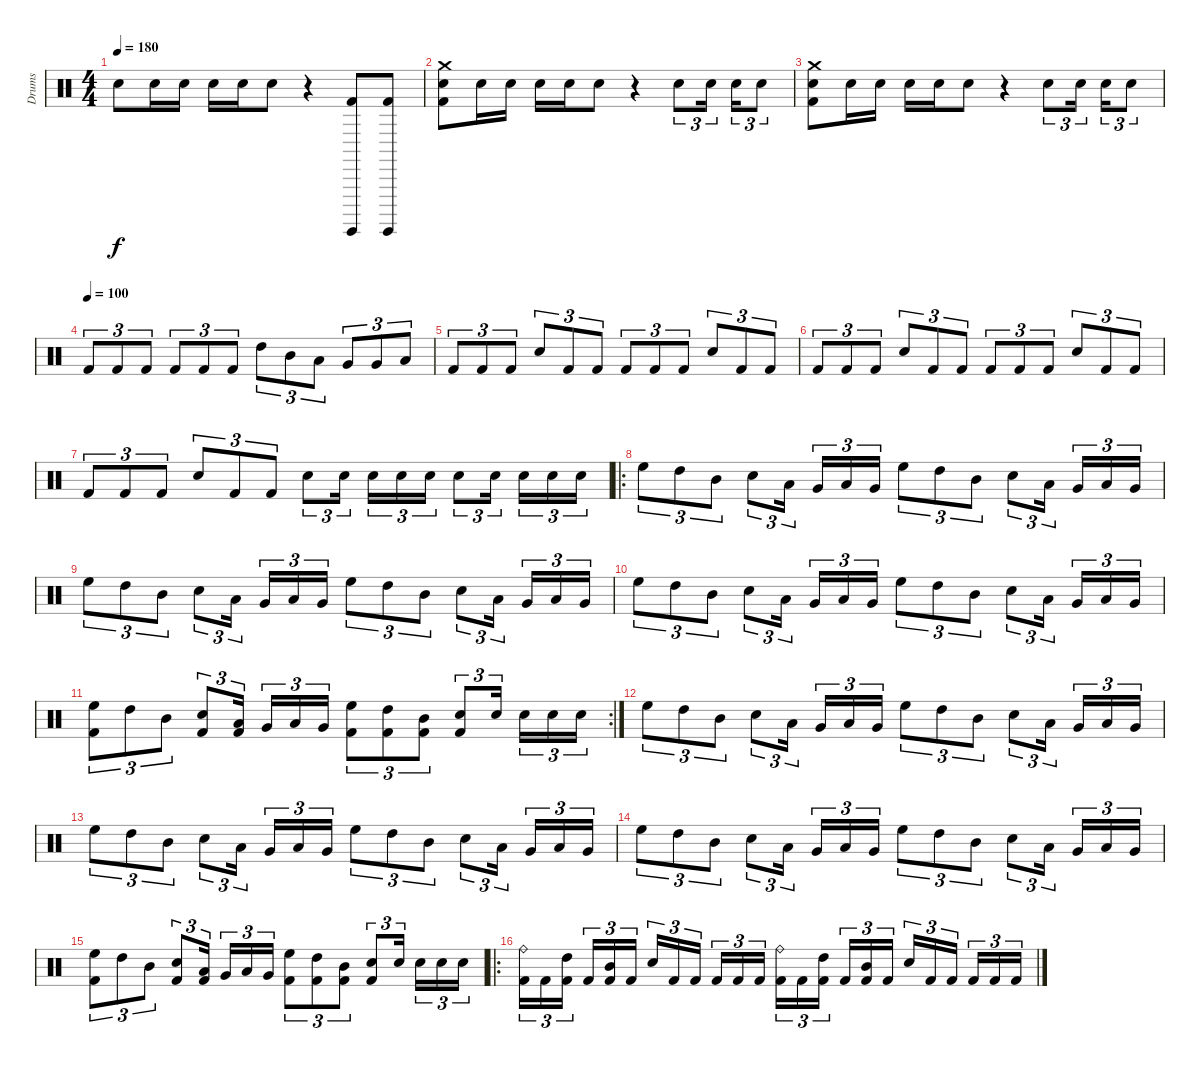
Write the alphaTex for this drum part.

\track ("Drums" "Drums") {instrument percussion}
\staff {score}
\articulation defaults
\ts (4 4)
\tempo 180
\clef neutral
\ks c "Electric Snare (hit)".8{dy f} "Electric Snare (hit)".16 "Electric Snare (hit)".16 "Electric Snare (hit)".16 "Electric Snare (hit)".16 "Electric Snare (hit)".8
r.4 ("Kick (hit) 2" "Surdo (hit)").8 ("Kick (hit) 2" "Surdo (hit)").8 |
("Kick (hit) 2" "Crash medium (hit)" "Electric Snare (hit)").8 "Electric Snare (hit)".16 "Electric Snare (hit)".16 "Electric Snare (hit)".16 "Electric Snare (hit)".16 "Electric Snare (hit)".8 r.4 "Electric Snare (hit)".8{tu (3 2)} "Electric Snare (hit)".16{tu (3 2)} "Electric Snare (hit)".16{tu (3 2)} "Electric Snare (hit)".8{tu (3 2)} |
("Kick (hit) 2" "Crash medium (hit)" "Electric Snare (hit)").8 "Electric Snare (hit)".16 "Electric Snare (hit)".16 "Electric Snare (hit)".16 "Electric Snare (hit)".16 "Electric Snare (hit)".8 r.4 "Electric Snare (hit)".8{tu (3 2)} "Electric Snare (hit)".16{tu (3 2)} "Electric Snare (hit)".16{tu (3 2)} "Electric Snare (hit)".8{tu (3 2)} |
\tempo (100)
"Kick (hit) 2".8{tu (3 2)} "Kick (hit) 2".8{tu (3 2)} "Kick (hit) 2".8{tu (3 2)} "Kick (hit) 2".8{tu (3 2)} "Kick (hit) 2".8{tu (3 2)} "Kick (hit) 2".8{tu (3 2)} "High Tom (hit)".8{tu (3 2)} "Mid Tom (hit)".8{tu (3 2)} "Low Tom (hit)".8{tu (3 2)} "Very Low Tom (hit)".8{tu (3 2)} "Very Low Tom (hit)".8{tu (3 2)} "Low Floor Tom (hit)".8{tu (3 2)} |
"Kick (hit) 2".8{tu (3 2)} "Kick (hit) 2".8{tu (3 2)} "Kick (hit) 2".8{tu (3 2)} "Electric Snare (hit)".8{tu (3 2)} "Kick (hit) 2".8{tu (3 2)} "Kick (hit) 2".8{tu (3 2)} "Kick (hit) 2".8{tu (3 2)} "Kick (hit) 2".8{tu (3 2)} "Kick (hit) 2".8{tu (3 2)} "Electric Snare (hit)".8{tu (3 2)} "Kick (hit) 2".8{tu (3 2)} "Kick (hit) 2".8{tu (3 2)} |
"Kick (hit) 2".8{tu (3 2)} "Kick (hit) 2".8{tu (3 2)} "Kick (hit) 2".8{tu (3 2)} "Electric Snare (hit)".8{tu (3 2)} "Kick (hit) 2".8{tu (3 2)} "Kick (hit) 2".8{tu (3 2)} "Kick (hit) 2".8{tu (3 2)} "Kick (hit) 2".8{tu (3 2)} "Kick (hit) 2".8{tu (3 2)} "Electric Snare (hit)".8{tu (3 2)} "Kick (hit) 2".8{tu (3 2)} "Kick (hit) 2".8{tu (3 2)} |
"Kick (hit) 2".8{tu (3 2)} "Kick (hit) 2".8{tu (3 2)} "Kick (hit) 2".8{tu (3 2)} "Electric Snare (hit)".8{tu (3 2)} "Kick (hit) 2".8{tu (3 2)} "Kick (hit) 2".8{tu (3 2)} "Electric Snare (hit)".8{tu (3 2)} "Electric Snare (hit)".16{tu (3 2)} "Electric Snare (hit)".16{tu (3 2)} "Electric Snare (hit)".16{tu (3 2)} "Electric Snare (hit)".16{tu (3 2)} "Electric Snare (hit)".8{tu (3 2)} "Electric Snare (hit)".16{tu (3 2)} "Electric Snare (hit)".16{tu (3 2)} "Electric Snare (hit)".16{tu (3 2)} "Electric Snare (hit)".16{tu (3 2)} |
\ro "High Floor Tom (hit)".8{tu (3 2)} "High Tom (hit)".8{tu (3 2)} "Mid Tom (hit)".8{tu (3 2)} "Electric Snare (hit)".8{tu (3 2)} "Low Tom (hit)".16{tu (3 2)} "Very Low Tom (hit)".16{tu (3 2)} "Low Tom (hit)".16{tu (3 2)} "Very Low Tom (hit)".16{tu (3 2)} "High Floor Tom (hit)".8{tu (3 2)} "High Tom (hit)".8{tu (3 2)} "Mid Tom (hit)".8{tu (3 2)} "Electric Snare (hit)".8{tu (3 2)} "Low Tom (hit)".16{tu (3 2)} "Very Low Tom (hit)".16{tu (3 2)} "Low Tom (hit)".16{tu (3 2)} "Very Low Tom (hit)".16{tu (3 2)}
|
"High Floor Tom (hit)".8{tu (3 2)} "High Tom (hit)".8{tu (3 2)} "Mid Tom (hit)".8{tu (3 2)} "Electric Snare (hit)".8{tu (3 2)} "Low Tom (hit)".16{tu (3 2)} "Very Low Tom (hit)".16{tu (3 2)} "Low Tom (hit)".16{tu (3 2)} "Very Low Tom (hit)".16{tu (3 2)} "High Floor Tom (hit)".8{tu (3 2)} "High Tom (hit)".8{tu (3 2)} "Mid Tom (hit)".8{tu (3 2)} "Electric Snare (hit)".8{tu (3 2)} "Low Tom (hit)".16{tu (3 2)} "Very Low Tom (hit)".16{tu (3 2)} "Low Tom (hit)".16{tu (3 2)} "Very Low Tom (hit)".16{tu (3 2)} |
"High Floor Tom (hit)".8{tu (3 2)} "High Tom (hit)".8{tu (3 2)} "Mid Tom (hit)".8{tu (3 2)} "Electric Snare (hit)".8{tu (3 2)} "Low Tom (hit)".16{tu (3 2)} "Very Low Tom (hit)".16{tu (3 2)} "Low Tom (hit)".16{tu (3 2)} "Very Low Tom (hit)".16{tu (3 2)} "High Floor Tom (hit)".8{tu (3 2)} "High Tom (hit)".8{tu (3 2)} "Mid Tom (hit)".8{tu (3 2)} "Electric Snare (hit)".8{tu (3 2)} "Low Tom (hit)".16{tu (3 2)} "Very Low Tom (hit)".16{tu (3 2)} "Low Tom (hit)".16{tu (3 2)} "Very Low Tom (hit)".16{tu (3 2)} |
\rc 2
("Kick (hit) 2" "High Floor Tom (hit)").8{tu (3 2)} "High Tom (hit)".8{tu (3 2)} "Mid Tom (hit)".8{tu (3 2)} ("Kick (hit) 2" "Electric Snare (hit)").8{tu (3 2)} ("Kick (hit) 2" "Low Tom (hit)").16{tu (3 2)} "Very Low Tom (hit)".16{tu (3 2)} "Low Tom (hit)".16{tu (3 2)} "Very Low Tom (hit)".16{tu (3 2)} ("Kick (hit) 2" "High Floor Tom (hit)").8{tu (3 2)} ("Kick (hit) 2" "High Tom (hit)").8{tu (3 2)} ("Kick (hit) 2" "Mid Tom (hit)").8{tu (3 2)} ("Kick (hit) 2" "Electric Snare (hit)").8{tu (3 2)} "Electric Snare (hit)".16{tu (3 2)} "Electric Snare (hit)".16{tu (3 2)} "Electric Snare (hit)".16{tu (3 2)} "Electric Snare (hit)".16{tu (3 2)} |
"High Floor Tom (hit)".8{tu (3 2)} "High Tom (hit)".8{tu (3 2)} "Mid Tom (hit)".8{tu (3 2)} "Electric Snare (hit)".8{tu (3 2)} "Low Tom (hit)".16{tu (3 2)} "Very Low Tom (hit)".16{tu (3 2)} "Low Tom (hit)".16{tu (3 2)} "Very Low Tom (hit)".16{tu (3 2)} "High Floor Tom (hit)".8{tu (3 2)} "High Tom (hit)".8{tu (3 2)} "Mid Tom (hit)".8{tu (3 2)} "Electric Snare (hit)".8{tu (3 2)} "Low Tom (hit)".16{tu (3 2)} "Very Low Tom (hit)".16{tu (3 2)} "Low Tom (hit)".16{tu (3 2)} "Very Low Tom (hit)".16{tu (3 2)} |
"High Floor Tom (hit)".8{tu (3 2)} "High Tom (hit)".8{tu (3 2)} "Mid Tom (hit)".8{tu (3 2)} "Electric Snare (hit)".8{tu (3 2)} "Low Tom (hit)".16{tu (3 2)} "Very Low Tom (hit)".16{tu (3 2)} "Low Tom (hit)".16{tu (3 2)} "Very Low Tom (hit)".16{tu (3 2)} "High Floor Tom (hit)".8{tu (3 2)} "High Tom (hit)".8{tu (3 2)} "Mid Tom (hit)".8{tu (3 2)} "Electric Snare (hit)".8{tu (3 2)} "Low Tom (hit)".16{tu (3 2)} "Very Low Tom (hit)".16{tu (3 2)} "Low Tom (hit)".16{tu (3 2)} "Very Low Tom (hit)".16{tu (3 2)} |
"High Floor Tom (hit)".8{tu (3 2)} "High Tom (hit)".8{tu (3 2)} "Mid Tom (hit)".8{tu (3 2)} "Electric Snare (hit)".8{tu (3 2)} "Low Tom (hit)".16{tu (3 2)} "Very Low Tom (hit)".16{tu (3 2)} "Low Tom (hit)".16{tu (3 2)} "Very Low Tom (hit)".16{tu (3 2)} "High Floor Tom (hit)".8{tu (3 2)} "High Tom (hit)".8{tu (3 2)} "Mid Tom (hit)".8{tu (3 2)} "Electric Snare (hit)".8{tu (3 2)} "Low Tom (hit)".16{tu (3 2)} "Very Low Tom (hit)".16{tu (3 2)} "Low Tom (hit)".16{tu (3 2)} "Very Low Tom (hit)".16{tu (3 2)} |
("Kick (hit) 2" "High Floor Tom (hit)").8{tu (3 2)} "High Tom (hit)".8{tu (3 2)} "Mid Tom (hit)".8{tu (3 2)} ("Kick (hit) 2" "Electric Snare (hit)").8{tu (3 2)} ("Kick (hit) 2" "Low Tom (hit)").16{tu (3 2)} "Very Low Tom (hit)".16{tu (3 2)} "Low Tom (hit)".16{tu (3 2)} "Very Low Tom (hit)".16{tu (3 2)} ("Kick (hit) 2" "High Floor Tom (hit)").8{tu (3 2)} ("Kick (hit) 2" "High Tom (hit)").8{tu (3 2)} ("Kick (hit) 2" "Mid Tom (hit)").8{tu (3 2)} ("Kick (hit) 2" "Electric Snare (hit)").8{tu (3 2)} "Electric Snare (hit)".16{tu (3 2)} "Electric Snare (hit)".16{tu (3 2)} "Electric Snare (hit)".16{tu (3 2)} "Electric Snare (hit)".16{tu (3 2)} |
\ro
("Ride (bell)" "Kick (hit) 2").16{tu (3 2)} "Kick (hit) 2".16{tu (3 2)} ("High Tom (hit)" "Kick (hit) 2").16{tu (3 2)} "Kick (hit) 2".16{tu (3 2)} ("Mid Tom (hit)" "Kick (hit) 2").16{tu (3 2)} "Kick (hit) 2".16{tu (3 2)} "Electric Snare (hit)".16{tu (3 2)} "Kick (hit) 2".16{tu (3 2)} "Kick (hit) 2".16{tu (3 2)} "Kick (hit) 2".16{tu (3 2)} "Kick (hit) 2".16{tu (3 2)} "Kick (hit) 2".16{tu (3 2)} ("Ride (bell)" "Kick (hit) 2").16{tu (3 2)} "Kick (hit) 2".16{tu (3 2)} ("High Tom (hit)" "Kick (hit) 2").16{tu (3 2)} "Kick (hit) 2".16{tu (3 2)} ("Mid Tom (hit)" "Kick (hit) 2").16{tu (3 2)} "Kick (hit) 2".16{tu (3 2)} "Electric Snare (hit)".16{tu (3 2)} "Kick (hit) 2".16{tu (3 2)} "Kick (hit) 2".16{tu (3 2)} "Kick (hit) 2".16{tu (3 2)} "Kick (hit) 2".16{tu (3 2)} "Kick (hit) 2".16{tu (3 2)}
